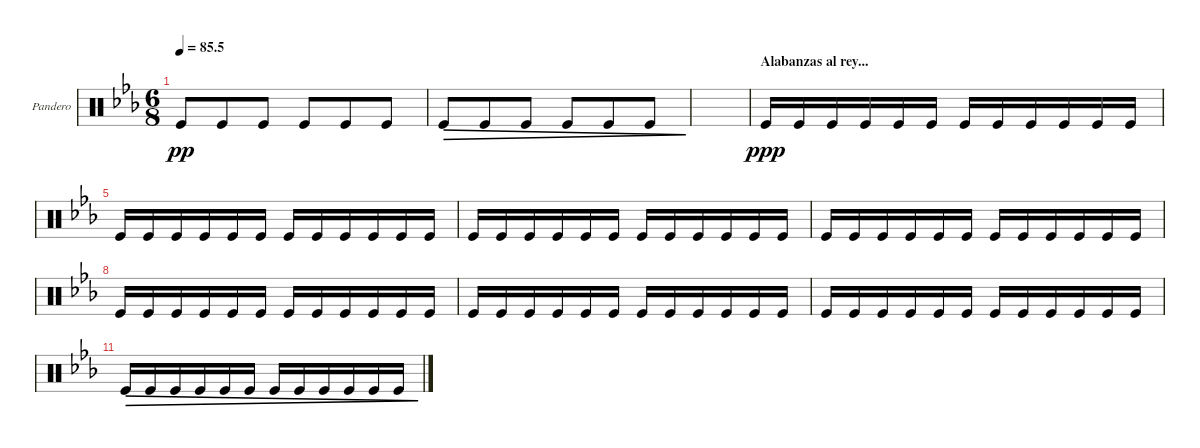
\defaultSystemsLayout 4
\bracketExtendMode groupsimilarinstruments
\multiTrackTrackNamePolicy allsystems
\firstSystemTrackNameOrientation horizontal
\otherSystemsTrackNameOrientation horizontal
\defaultBarNumberDisplay FirstOfSystem
\track ("Pandero" "Pandero") {instrument percussion}
\staff {score}
\articulation defaults
\ts (6 8)
\tempo
85.5
\accidentals auto
\clef neutral
\ottava regular
\simile none
\scale
0.333333
\ks eb "Kick (hit)".8{dy pp} "Kick (hit)".8 "Kick (hit)".8 "Kick (hit)".8 "Kick (hit)".8 "Kick (hit)".8
|
\scale
0.333333 "Kick (hit)".8{dec} "Kick (hit)".8{dec} "Kick (hit)".8{dec} "Kick (hit)".8{dec} "Kick (hit)".8{dec} "Kick (hit)".8{dec} |
\scale
0.333333 |
\section ("" "Alabanzas al rey...")
\scale
0.333333 "Kick (hit)".16{dy ppp} "Kick (hit)".16 "Kick (hit)".16 "Kick (hit)".16 "Kick (hit)".16 "Kick (hit)".16 "Kick (hit)".16 "Kick (hit)".16 "Kick (hit)".16 "Kick (hit)".16 "Kick (hit)".16 "Kick (hit)".16 |
\scale
0.333333 "Kick (hit)".16 "Kick (hit)".16 "Kick (hit)".16 "Kick (hit)".16 "Kick (hit)".16 "Kick (hit)".16 "Kick (hit)".16 "Kick (hit)".16 "Kick (hit)".16 "Kick (hit)".16 "Kick (hit)".16 "Kick (hit)".16 |
\scale
0.333333 "Kick (hit)".16 "Kick (hit)".16 "Kick (hit)".16 "Kick (hit)".16 "Kick (hit)".16 "Kick (hit)".16 "Kick (hit)".16 "Kick (hit)".16 "Kick (hit)".16 "Kick (hit)".16 "Kick (hit)".16 "Kick (hit)".16 |
\scale
0.333333 "Kick (hit)".16 "Kick (hit)".16 "Kick (hit)".16 "Kick (hit)".16 "Kick (hit)".16 "Kick (hit)".16 "Kick (hit)".16 "Kick (hit)".16 "Kick (hit)".16 "Kick (hit)".16 "Kick (hit)".16 "Kick (hit)".16 |
\scale
0.333333 "Kick (hit)".16 "Kick (hit)".16 "Kick (hit)".16 "Kick (hit)".16 "Kick (hit)".16 "Kick (hit)".16 "Kick (hit)".16 "Kick (hit)".16 "Kick (hit)".16 "Kick (hit)".16 "Kick (hit)".16 "Kick (hit)".16 |
\scale
0.333333 "Kick (hit)".16 "Kick (hit)".16 "Kick (hit)".16 "Kick (hit)".16 "Kick (hit)".16 "Kick (hit)".16 "Kick (hit)".16 "Kick (hit)".16 "Kick (hit)".16 "Kick (hit)".16 "Kick (hit)".16 "Kick (hit)".16 |
\scale
0.333333 "Kick (hit)".16 "Kick (hit)".16 "Kick (hit)".16 "Kick (hit)".16 "Kick (hit)".16 "Kick (hit)".16 "Kick (hit)".16 "Kick (hit)".16 "Kick (hit)".16 "Kick (hit)".16 "Kick (hit)".16 "Kick (hit)".16 |
\scale
0.333333 "Kick (hit)".16{dec} "Kick (hit)".16{dec} "Kick (hit)".16{dec} "Kick (hit)".16{dec} "Kick (hit)".16{dec} "Kick (hit)".16{dec} "Kick (hit)".16{dec} "Kick (hit)".16{dec} "Kick (hit)".16{dec} "Kick (hit)".16{dec} "Kick (hit)".16{dec} "Kick (hit)".16{dec} |
\scale
0.333333 |
\scale
0.333333 |
\scale
0.333333 |
\scale
0.333333 |
\scale
0.333333
